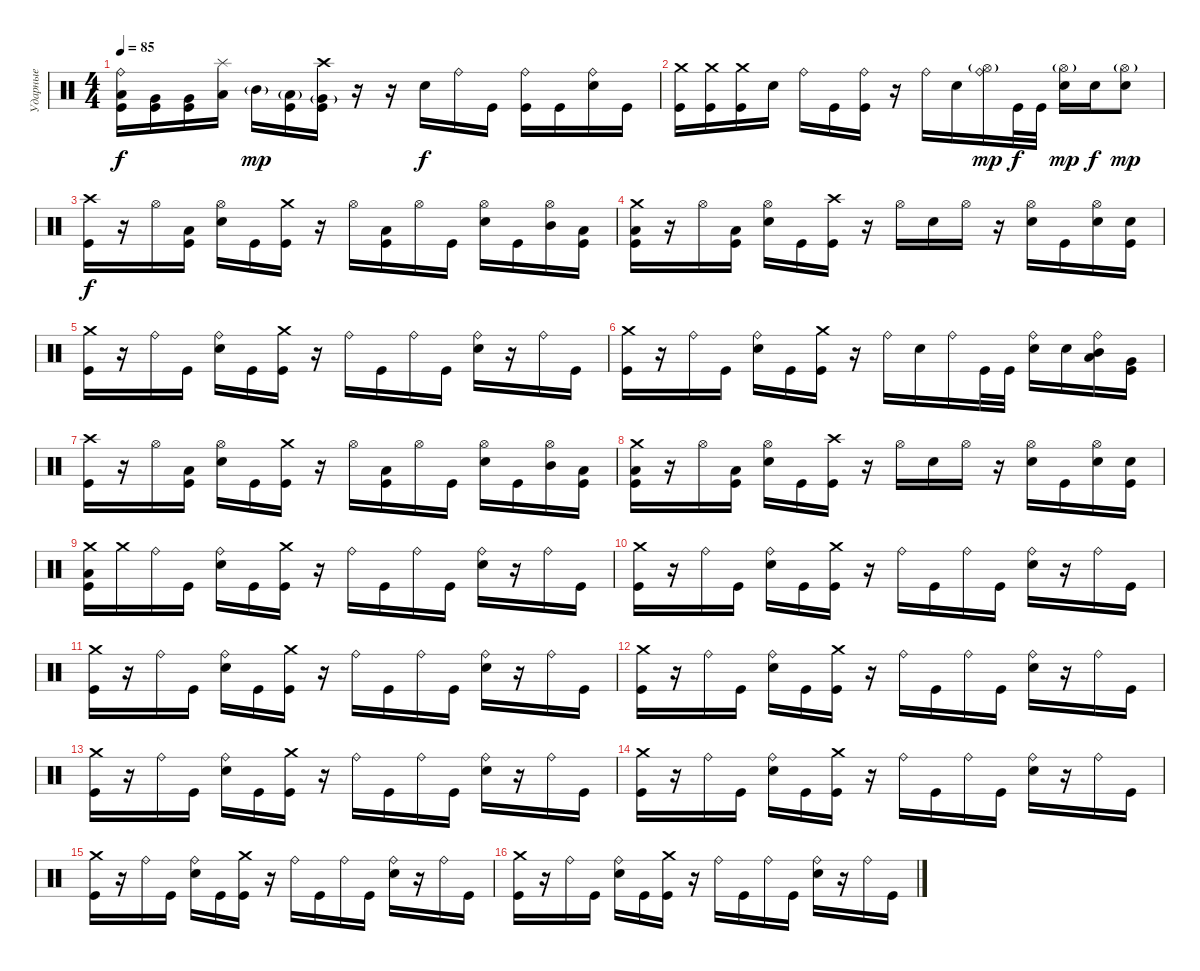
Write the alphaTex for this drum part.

\track ("Ударные" "Ударные") {instrument percussion}
\staff {score}
\articulation defaults
\ts (4 4)
\tempo 85
\clef neutral
\ks c
("Ride (bell)" "Low Tom (hit)" "Kick (hit)").16{dy f} ("Very Low Tom (hit)" "Kick (hit)").16 ("Very Low Tom (hit)" "Kick (hit)").16 ("Splash (hit)" "Low Floor Tom (hit)").16 "Mid Tom (hit)"{g}.16{dy mp} ("Low Tom (hit)"{g} "Kick (hit)").16 ("Crash high (hit)" "Very Low Tom (hit)"{g} "Kick (hit)").16 r.16 r.16 "Snare (hit) 2".16{dy f} "Ride (bell)".16 "Kick (hit)".16 ("Ride (bell)" "Kick (hit)").16 "Kick (hit)".16 ("Ride (bell)" "Snare (hit) 2").16 "Kick (hit)".16 |
("Crash medium (hit)" "Kick (hit)").16 ("Crash medium (hit)" "Kick (hit)").16 ("Crash medium (hit)" "Kick (hit)").16 "Snare (hit) 2".16 "Ride (bell)".16 "Kick (hit)".16 ("Ride (bell)" "Kick (hit)").16 r.16 "Ride (bell)".16 "Snare (hit) 2".16 ("Ride (bell)" "Hi-Hat (open)"{g}).16{dy mp} "Kick (hit)".32{dy f} "Kick (hit)".32 ("Hi-Hat (open)"{g} "Snare (hit) 2").16{dy mp} "Snare (hit) 2".16{dy f} ("Hi-Hat (open)"{g} "Snare (hit) 2").8{dy mp} |
("Crash high (hit)" "Kick (hit)").16{dy f} r.16 "Hi-Hat (open)".16 ("Low Floor Tom (hit)" "Kick (hit)").16 ("Hi-Hat (open)" "Snare (hit) 2").16 "Kick (hit)".16 ("Crash medium (hit)" "Kick (hit)").16 r.16 "Hi-Hat (open)".16 ("Low Floor Tom (hit)" "Kick (hit)").16 "Hi-Hat (open)".16 "Kick (hit)".16 ("Hi-Hat (open)" "Snare (hit) 2").16 "Kick (hit)".16 ("Hi-Hat (open)" "Mid Tom (hit)").16 ("Low Tom (hit)" "Kick (hit)").16 |
("Crash medium (hit)" "Low Floor Tom (hit)" "Kick (hit)").16 r.16 "Hi-Hat (open)".16 ("Low Floor Tom (hit)" "Kick (hit)").16 ("Hi-Hat (open)" "Snare (hit) 2").16 "Kick (hit)".16 ("Crash high (hit)" "Kick (hit)").16 r.16 "Hi-Hat (open)".16 "Snare (hit) 2".16 "Hi-Hat (open)".16 r.16 ("Hi-Hat (open)" "Snare (hit) 2").16 "Kick (hit)".16 ("Hi-Hat (open)" "Snare (hit) 2").16 ("Snare (hit) 2" "Kick (hit)").16 |
("Crash medium (hit)" "Kick (hit)").16 r.16 "Ride (bell)".16 "Kick (hit)".16 ("Ride (bell)" "Snare (hit) 2").16 "Kick (hit)".16 ("Crash medium (hit)" "Kick (hit)").16 r.16 "Ride (bell)".16 "Kick (hit)".16 "Ride (bell)".16 "Kick (hit)".16 ("Ride (bell)" "Snare (hit) 2").16 r.16 "Ride (bell)".16 "Kick (hit)".16 |
("Crash medium (hit)" "Kick (hit)").16 r.16 "Ride (bell)".16 "Kick (hit)".16 ("Ride (bell)" "Snare (hit) 2").16 "Kick (hit)".16 ("Crash medium (hit)" "Kick (hit)").16 r.16 "Ride (bell)".16 "Snare (hit) 2".16 "Ride (bell)".16 "Kick (hit)".32 "Kick (hit)".32 ("Ride (bell)" "Snare (hit) 2").16 "Snare (hit) 2".16 ("Ride (bell)" "Low Floor Tom (hit)" "Mid Tom (hit)").16 ("Very Low Tom (hit)" "Kick (hit)").16 |
("Crash high (hit)" "Kick (hit)").16 r.16 "Hi-Hat (open)".16 ("Low Floor Tom (hit)" "Kick (hit)").16 ("Hi-Hat (open)" "Snare (hit) 2").16 "Kick (hit)".16 ("Crash medium (hit)" "Kick (hit)").16 r.16 "Hi-Hat (open)".16 ("Low Floor Tom (hit)" "Kick (hit)").16 "Hi-Hat (open)".16 "Kick (hit)".16 ("Hi-Hat (open)" "Snare (hit) 2").16 "Kick (hit)".16 ("Hi-Hat (open)" "Mid Tom (hit)").16 ("Low Tom (hit)" "Kick (hit)").16 |
("Crash medium (hit)" "Low Floor Tom (hit)" "Kick (hit)").16 r.16 "Hi-Hat (open)".16 ("Low Floor Tom (hit)" "Kick (hit)").16 ("Hi-Hat (open)" "Snare (hit) 2").16 "Kick (hit)".16 ("Crash high (hit)" "Kick (hit)").16 r.16 "Hi-Hat (open)".16 "Snare (hit) 2".16 "Hi-Hat (open)".16 r.16 ("Hi-Hat (open)" "Snare (hit) 2").16 "Kick (hit)".16 ("Hi-Hat (open)" "Snare (hit) 2").16 ("Snare (hit) 2" "Kick (hit)").16 |
("Crash medium (hit)" "Low Floor Tom (hit)" "Kick (hit)").16 "Crash medium (hit)".16 "Ride (bell)".16 "Kick (hit)".16 ("Ride (bell)" "Snare (hit) 2").16 "Kick (hit)".16 ("Crash medium (hit)" "Kick (hit)").16 r.16 "Ride (bell)".16 "Kick (hit)".16 "Ride (bell)".16 "Kick (hit)".16 ("Ride (bell)" "Snare (hit) 2").16 r.16 "Ride (bell)".16 "Kick (hit)".16 |
("Crash medium (hit)" "Kick (hit)").16 r.16 "Ride (bell)".16 "Kick (hit)".16 ("Ride (bell)" "Snare (hit) 2").16 "Kick (hit)".16 ("Crash medium (hit)" "Kick (hit)").16 r.16 "Ride (bell)".16 "Kick (hit)".16 "Ride (bell)".16 "Kick (hit)".16 ("Ride (bell)" "Snare (hit) 2").16 r.16 "Ride (bell)".16 "Kick (hit)".16 |
("Crash medium (hit)" "Kick (hit)").16 r.16 "Ride (bell)".16 "Kick (hit)".16 ("Ride (bell)" "Snare (hit) 2").16 "Kick (hit)".16 ("Crash medium (hit)" "Kick (hit)").16 r.16 "Ride (bell)".16 "Kick (hit)".16 "Ride (bell)".16 "Kick (hit)".16 ("Ride (bell)" "Snare (hit) 2").16 r.16 "Ride (bell)".16 "Kick (hit)".16 |
("Crash medium (hit)" "Kick (hit)").16 r.16 "Ride (bell)".16 "Kick (hit)".16 ("Ride (bell)" "Snare (hit) 2").16 "Kick (hit)".16 ("Crash medium (hit)" "Kick (hit)").16 r.16 "Ride (bell)".16 "Kick (hit)".16 "Ride (bell)".16 "Kick (hit)".16 ("Ride (bell)" "Snare (hit) 2").16 r.16 "Ride (bell)".16 "Kick (hit)".16 |
("Crash medium (hit)" "Kick (hit)").16 r.16 "Ride (bell)".16 "Kick (hit)".16 ("Ride (bell)" "Snare (hit) 2").16 "Kick (hit)".16 ("Crash medium (hit)" "Kick (hit)").16 r.16 "Ride (bell)".16 "Kick (hit)".16 "Ride (bell)".16 "Kick (hit)".16 ("Ride (bell)" "Snare (hit) 2").16 r.16 "Ride (bell)".16 "Kick (hit)".16 |
("Crash medium (hit)" "Kick (hit)").16 r.16 "Ride (bell)".16 "Kick (hit)".16 ("Ride (bell)" "Snare (hit) 2").16 "Kick (hit)".16 ("Crash medium (hit)" "Kick (hit)").16 r.16 "Ride (bell)".16 "Kick (hit)".16 "Ride (bell)".16 "Kick (hit)".16 ("Ride (bell)" "Snare (hit) 2").16 r.16 "Ride (bell)".16 "Kick (hit)".16 |
("Crash medium (hit)" "Kick (hit)").16 r.16 "Ride (bell)".16 "Kick (hit)".16 ("Ride (bell)" "Snare (hit) 2").16 "Kick (hit)".16 ("Crash medium (hit)" "Kick (hit)").16 r.16 "Ride (bell)".16 "Kick (hit)".16 "Ride (bell)".16 "Kick (hit)".16 ("Ride (bell)" "Snare (hit) 2").16 r.16 "Ride (bell)".16 "Kick (hit)".16 |
("Crash medium (hit)" "Kick (hit)").16 r.16 "Ride (bell)".16 "Kick (hit)".16 ("Ride (bell)" "Snare (hit) 2").16 "Kick (hit)".16 ("Crash medium (hit)" "Kick (hit)").16 r.16 "Ride (bell)".16 "Kick (hit)".16 "Ride (bell)".16 "Kick (hit)".16 ("Ride (bell)" "Snare (hit) 2").16 r.16 "Ride (bell)".16 "Kick (hit)".16
